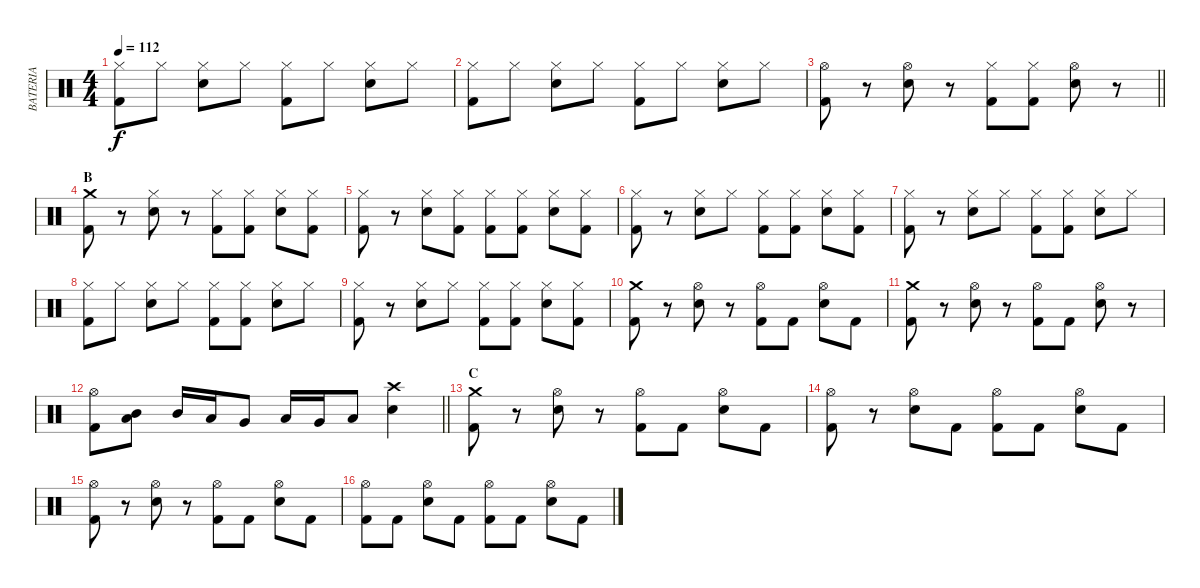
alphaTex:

\track ("BATERIA" "BATERIA") {instrument percussion}
\staff {score}
\articulation defaults
\ts (4 4)
\tempo 112
\clef neutral
\ks c
("Kick (hit) 2" "Hi-Hat (closed)").8{dy f} "Hi-Hat (closed)".8 ("Hi-Hat (closed)" "Electric Snare (hit)").8 "Hi-Hat (closed)".8 ("Kick (hit) 2" "Hi-Hat (closed)").8 "Hi-Hat (closed)".8 ("Hi-Hat (closed)" "Electric Snare (hit)").8 "Hi-Hat (closed)".8 |
("Kick (hit) 2" "Hi-Hat (closed)").8 "Hi-Hat (closed)".8 ("Hi-Hat (closed)" "Electric Snare (hit)").8 "Hi-Hat (closed)".8 ("Kick (hit) 2" "Hi-Hat (closed)").8 "Hi-Hat (closed)".8 ("Hi-Hat (closed)" "Electric Snare (hit)").8 "Hi-Hat (closed)".8 |
\barLineRight lightlight
("Kick (hit) 2" "Hi-Hat (open)").8 r.8 ("Hi-Hat (open)" "Electric Snare (hit)").8 r.8 ("Kick (hit) 2" "Hi-Hat (closed)").8 ("Kick (hit) 2" "Hi-Hat (closed)").8 ("Hi-Hat (open)" "Electric Snare (hit)").8 r.8 |
\section ("" "B")
("Kick (hit) 2" "Crash medium (hit)").8 r.8 ("Hi-Hat (closed)" "Electric Snare (hit)").8 r.8 ("Kick (hit) 2" "Hi-Hat (closed)").8 ("Kick (hit) 2" "Hi-Hat (closed)").8 ("Hi-Hat (closed)" "Electric Snare (hit)").8 ("Kick (hit) 2" "Hi-Hat (closed)").8 |
("Kick (hit) 2" "Hi-Hat (closed)").8 r.8 ("Hi-Hat (closed)" "Electric Snare (hit)").8 ("Kick (hit) 2" "Hi-Hat (closed)").8 ("Kick (hit) 2" "Hi-Hat (closed)").8 ("Kick (hit) 2" "Hi-Hat (closed)").8 ("Hi-Hat (closed)" "Electric Snare (hit)").8 ("Kick (hit) 2" "Hi-Hat (closed)").8 |
("Kick (hit) 2" "Hi-Hat (closed)").8 r.8 ("Hi-Hat (closed)" "Electric Snare (hit)").8 "Hi-Hat (closed)".8 ("Kick (hit) 2" "Hi-Hat (closed)").8 ("Kick (hit) 2" "Hi-Hat (closed)").8 ("Hi-Hat (closed)" "Electric Snare (hit)").8 ("Kick (hit) 2" "Hi-Hat (closed)").8 |
("Kick (hit) 2" "Hi-Hat (closed)").8 r.8 ("Hi-Hat (closed)" "Electric Snare (hit)").8 "Hi-Hat (closed)".8 ("Kick (hit) 2" "Hi-Hat (closed)").8 ("Kick (hit) 2" "Hi-Hat (closed)").8 ("Hi-Hat (closed)" "Electric Snare (hit)").8 "Hi-Hat (closed)".8 |
("Kick (hit) 2" "Hi-Hat (closed)").8 "Hi-Hat (closed)".8 ("Hi-Hat (closed)" "Electric Snare (hit)").8 "Hi-Hat (closed)".8 ("Kick (hit) 2" "Hi-Hat (closed)").8 ("Kick (hit) 2" "Hi-Hat (closed)").8 ("Hi-Hat (closed)" "Electric Snare (hit)").8 "Hi-Hat (closed)".8 |
("Kick (hit) 2" "Hi-Hat (closed)").8 r.8 ("Hi-Hat (closed)" "Electric Snare (hit)").8 "Hi-Hat (closed)".8 ("Kick (hit) 2" "Hi-Hat (closed)").8 ("Kick (hit) 2" "Hi-Hat (closed)").8 ("Hi-Hat (closed)" "Electric Snare (hit)").8 ("Kick (hit) 2" "Hi-Hat (closed)").8 |
("Kick (hit) 2" "Crash medium (hit)").8 r.8 ("Hi-Hat (open)" "Electric Snare (hit)").8 r.8 ("Kick (hit) 2" "Hi-Hat (open)").8 "Kick (hit) 2".8 ("Hi-Hat (open)" "Electric Snare (hit)").8 "Kick (hit) 2".8 |
("Kick (hit) 2" "Crash medium (hit)").8 r.8 ("Hi-Hat (open)" "Electric Snare (hit)").8 r.8 ("Kick (hit) 2" "Hi-Hat (open)").8 "Kick (hit) 2".8 ("Hi-Hat (open)" "Electric Snare (hit)").8 r.8 |
\barLineRight lightlight
("Kick (hit) 2" "Hi-Hat (open)").8 ("Low Floor Tom (hit)" "Mid Tom (hit)").8 "Mid Tom (hit)".16 "Low Tom (hit)".16 "Very Low Tom (hit)".8 "Low Tom (hit)".16 "Very Low Tom (hit)".16 "Low Floor Tom (hit)".8 ("Electric Snare (hit)" "Crash high (hit)").4 |
\section ("" "C")
("Kick (hit) 2" "Crash medium (hit)").8 r.8 ("Hi-Hat (open)" "Electric Snare (hit)").8 r.8 ("Kick (hit) 2" "Hi-Hat (open)").8 "Kick (hit) 2".8 ("Hi-Hat (open)" "Electric Snare (hit)").8 "Kick (hit) 2".8 |
("Kick (hit) 2" "Hi-Hat (open)").8 r.8 ("Hi-Hat (open)" "Electric Snare (hit)").8 "Kick (hit) 2".8 ("Kick (hit) 2" "Hi-Hat (open)").8 "Kick (hit) 2".8 ("Hi-Hat (open)" "Electric Snare (hit)").8 "Kick (hit) 2".8 |
("Kick (hit) 2" "Hi-Hat (open)").8 r.8 ("Hi-Hat (open)" "Electric Snare (hit)").8 r.8 ("Kick (hit) 2" "Hi-Hat (open)").8 "Kick (hit) 2".8 ("Hi-Hat (open)" "Electric Snare (hit)").8 "Kick (hit) 2".8 |
("Kick (hit) 2" "Hi-Hat (open)").8 "Kick (hit) 2".8 ("Hi-Hat (open)" "Electric Snare (hit)").8 "Kick (hit) 2".8 ("Kick (hit) 2" "Hi-Hat (open)").8 "Kick (hit) 2".8 ("Hi-Hat (open)" "Electric Snare (hit)").8 "Kick (hit) 2".8
